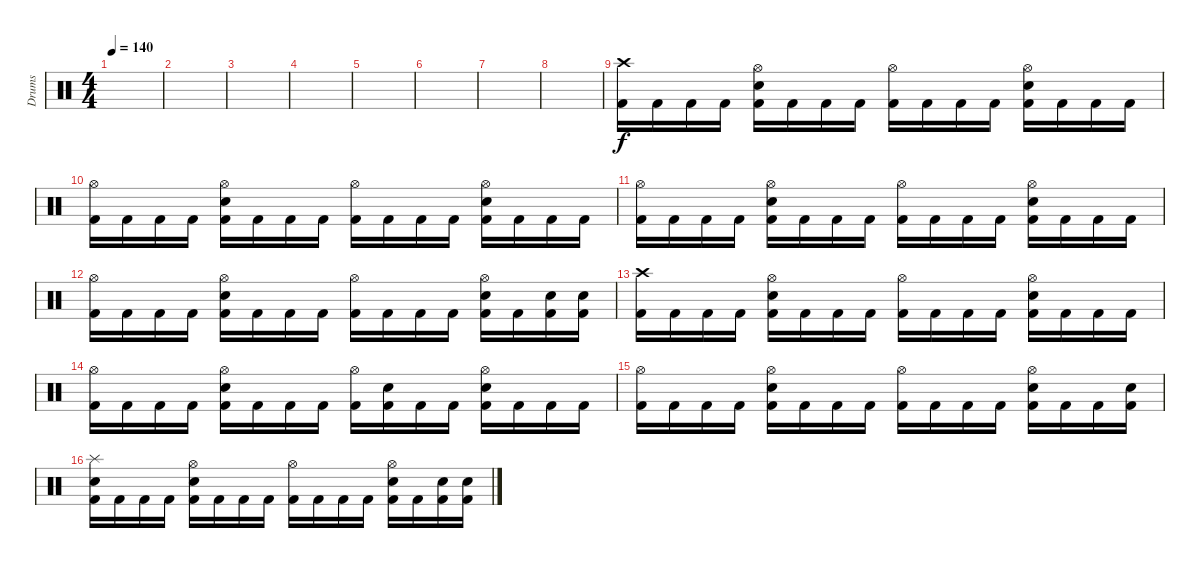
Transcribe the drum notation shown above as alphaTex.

\track ("Drums" "Drums") {instrument percussion}
\staff {score}
\articulation defaults
\ts (4 4)
\tempo 140
\clef neutral
\ks c
|
|
|
|
|
|
|
|
("Kick (hit) 2" "Crash high (hit)").16 "Kick (hit) 2".16 "Kick (hit) 2".16 "Kick (hit) 2".16 ("Kick (hit) 2" "Electric Snare (hit)" "Hi-Hat (open)").16 "Kick (hit) 2".16 "Kick (hit) 2".16 "Kick (hit) 2".16 ("Kick (hit) 2" "Hi-Hat (open)").16 "Kick (hit) 2".16 "Kick (hit) 2".16 "Kick (hit) 2".16 ("Kick (hit) 2" "Electric Snare (hit)" "Hi-Hat (open)").16 "Kick (hit) 2".16 "Kick (hit) 2".16 "Kick (hit) 2".16 |
("Kick (hit) 2" "Hi-Hat (open)").16 "Kick (hit) 2".16 "Kick (hit) 2".16 "Kick (hit) 2".16 ("Kick (hit) 2" "Electric Snare (hit)" "Hi-Hat (open)").16 "Kick (hit) 2".16 "Kick (hit) 2".16 "Kick (hit) 2".16 ("Kick (hit) 2" "Hi-Hat (open)").16 "Kick (hit) 2".16 "Kick (hit) 2".16 "Kick (hit) 2".16 ("Kick (hit) 2" "Electric Snare (hit)" "Hi-Hat (open)").16 "Kick (hit) 2".16 "Kick (hit) 2".16 "Kick (hit) 2".16 |
("Kick (hit) 2" "Hi-Hat (open)").16 "Kick (hit) 2".16 "Kick (hit) 2".16 "Kick (hit) 2".16 ("Kick (hit) 2" "Electric Snare (hit)" "Hi-Hat (open)").16 "Kick (hit) 2".16 "Kick (hit) 2".16 "Kick (hit) 2".16 ("Kick (hit) 2" "Hi-Hat (open)").16 "Kick (hit) 2".16 "Kick (hit) 2".16 "Kick (hit) 2".16 ("Kick (hit) 2" "Electric Snare (hit)" "Hi-Hat (open)").16 "Kick (hit) 2".16 "Kick (hit) 2".16 "Kick (hit) 2".16 |
("Kick (hit) 2" "Hi-Hat (open)").16 "Kick (hit) 2".16 "Kick (hit) 2".16 "Kick (hit) 2".16 ("Kick (hit) 2" "Electric Snare (hit)" "Hi-Hat (open)").16 "Kick (hit) 2".16 "Kick (hit) 2".16 "Kick (hit) 2".16 ("Kick (hit) 2" "Hi-Hat (open)").16 "Kick (hit) 2".16 "Kick (hit) 2".16 "Kick (hit) 2".16 ("Kick (hit) 2" "Electric Snare (hit)" "Hi-Hat (open)").16 "Kick (hit) 2".16 ("Kick (hit) 2" "Electric Snare (hit)").16 ("Kick (hit) 2" "Electric Snare (hit)").16 |
("Kick (hit) 2" "Crash high (hit)").16 "Kick (hit) 2".16 "Kick (hit) 2".16 "Kick (hit) 2".16 ("Kick (hit) 2" "Electric Snare (hit)" "Hi-Hat (open)").16 "Kick (hit) 2".16 "Kick (hit) 2".16 "Kick (hit) 2".16 ("Kick (hit) 2" "Hi-Hat (open)").16 "Kick (hit) 2".16 "Kick (hit) 2".16 "Kick (hit) 2".16 ("Kick (hit) 2" "Electric Snare (hit)" "Hi-Hat (open)").16 "Kick (hit) 2".16 "Kick (hit) 2".16 "Kick (hit) 2".16 |
("Kick (hit) 2" "Hi-Hat (open)").16 "Kick (hit) 2".16 "Kick (hit) 2".16 "Kick (hit) 2".16 ("Kick (hit) 2" "Electric Snare (hit)" "Hi-Hat (open)").16 "Kick (hit) 2".16 "Kick (hit) 2".16 "Kick (hit) 2".16 ("Kick (hit) 2" "Hi-Hat (open)").16 ("Kick (hit) 2" "Electric Snare (hit)").16 "Kick (hit) 2".16 "Kick (hit) 2".16 ("Kick (hit) 2" "Electric Snare (hit)" "Hi-Hat (open)").16 "Kick (hit) 2".16 "Kick (hit) 2".16 "Kick (hit) 2".16 |
("Kick (hit) 2" "Hi-Hat (open)").16 "Kick (hit) 2".16 "Kick (hit) 2".16 "Kick (hit) 2".16 ("Kick (hit) 2" "Electric Snare (hit)" "Hi-Hat (open)").16 "Kick (hit) 2".16 "Kick (hit) 2".16 "Kick (hit) 2".16 ("Kick (hit) 2" "Hi-Hat (open)").16 "Kick (hit) 2".16 "Kick (hit) 2".16 "Kick (hit) 2".16 ("Kick (hit) 2" "Electric Snare (hit)" "Hi-Hat (open)").16 "Kick (hit) 2".16 "Kick (hit) 2".16 ("Kick (hit) 2" "Electric Snare (hit)").16 |
("Kick (hit) 2" "Electric Snare (hit)" "Splash (hit)").16 "Kick (hit) 2".16 "Kick (hit) 2".16 "Kick (hit) 2".16 ("Kick (hit) 2" "Electric Snare (hit)" "Hi-Hat (open)").16 "Kick (hit) 2".16 "Kick (hit) 2".16 "Kick (hit) 2".16 ("Kick (hit) 2" "Hi-Hat (open)").16 "Kick (hit) 2".16 "Kick (hit) 2".16 "Kick (hit) 2".16 ("Kick (hit) 2" "Electric Snare (hit)" "Hi-Hat (open)").16 "Kick (hit) 2".16 ("Kick (hit) 2" "Electric Snare (hit)").16 ("Kick (hit) 2" "Electric Snare (hit)").16
